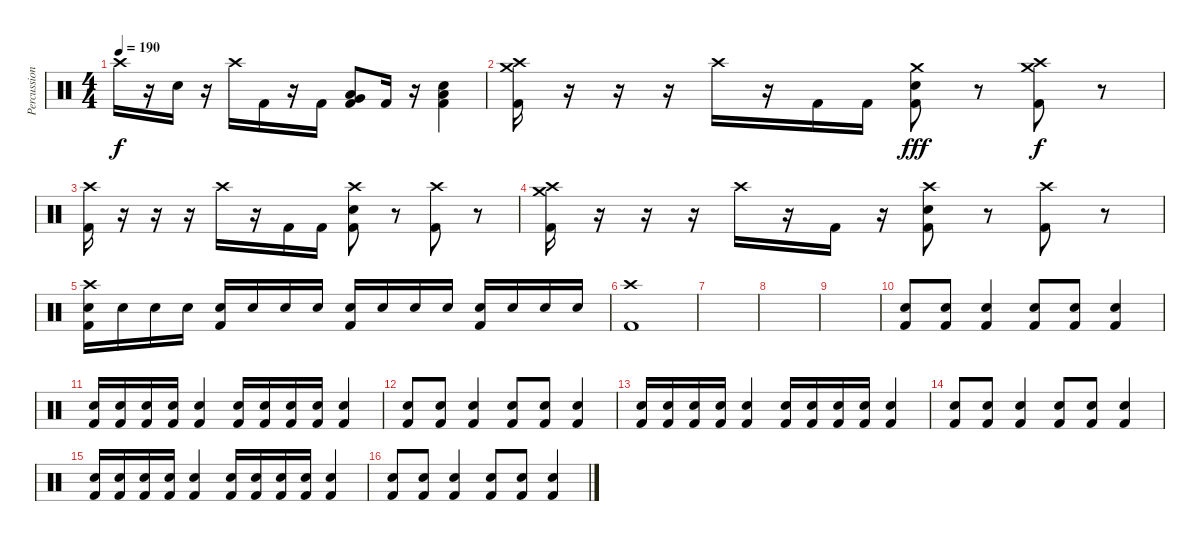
\track ("Percussion" "Percussion") {instrument percussion}
\staff {score}
\articulation defaults
\ts (4 4)
\tempo 190
\clef neutral
\ks c "Crash high (hit)".16{dy f}
r.16 "Electric Snare (hit)".16 r.16 "Crash high (hit)".16 "Kick (hit) 2".16 r.16 "Kick (hit) 2".16 ("Low Floor Tom (hit)" "Very Low Tom (hit)" "Kick (hit) 2").8 "Kick (hit) 2".16 r.16 ("Electric Snare (hit)" "Low Floor Tom (hit)" "Kick (hit) 2").4 |
("Crash medium (hit)" "Crash high (hit)" "Kick (hit) 2").16 r.16 r.16 r.16 "Crash high (hit)".16 r.16 "Kick (hit) 2".16 "Kick (hit) 2".16 ("Crash medium (hit)" "Electric Snare (hit)" "Kick (hit) 2").8{dy fff} r.8 ("Crash medium (hit)" "Crash high (hit)" "Kick (hit) 2").8{dy f} r.8 |
("Crash high (hit)" "Kick (hit) 2").16 r.16 r.16 r.16 "Crash high (hit)".16 r.16 "Kick (hit) 2".16 "Kick (hit) 2".16 ("Crash high (hit)" "Electric Snare (hit)" "Kick (hit) 2").8 r.8 ("Crash high (hit)" "Kick (hit) 2").8 r.8 |
("Crash medium (hit)" "Crash high (hit)" "Kick (hit) 2").16 r.16 r.16 r.16 "Crash high (hit)".16 r.16 "Kick (hit) 2".16 r.16 ("Crash high (hit)" "Electric Snare (hit)" "Kick (hit) 2").8 r.8 ("Crash high (hit)" "Kick (hit) 2").8 r.8 |
("Crash high (hit)" "Electric Snare (hit)" "Kick (hit) 2").16 "Electric Snare (hit)".16 "Electric Snare (hit)".16 "Electric Snare (hit)".16 ("Electric Snare (hit)" "Kick (hit) 2").16 "Electric Snare (hit)".16 "Electric Snare (hit)".16 "Electric Snare (hit)".16 ("Electric Snare (hit)" "Kick (hit) 2").16 "Electric Snare (hit)".16 "Electric Snare (hit)".16 "Electric Snare (hit)".16 ("Electric Snare (hit)" "Kick (hit) 2").16 "Electric Snare (hit)".16 "Electric Snare (hit)".16 "Electric Snare (hit)".16 |
("Crash high (hit)" "Kick (hit) 2").1 |
|
|
|
("Electric Snare (hit)" "Kick (hit) 2").8 ("Electric Snare (hit)" "Kick (hit) 2").8 ("Electric Snare (hit)" "Kick (hit) 2").4 ("Electric Snare (hit)" "Kick (hit) 2").8 ("Electric Snare (hit)" "Kick (hit) 2").8 ("Electric Snare (hit)" "Kick (hit) 2").4 |
("Electric Snare (hit)" "Kick (hit) 2").16 ("Electric Snare (hit)" "Kick (hit) 2").16 ("Electric Snare (hit)" "Kick (hit) 2").16 ("Electric Snare (hit)" "Kick (hit) 2").16 ("Electric Snare (hit)" "Kick (hit) 2").4 ("Electric Snare (hit)" "Kick (hit) 2").16 ("Electric Snare (hit)" "Kick (hit) 2").16 ("Electric Snare (hit)" "Kick (hit) 2").16 ("Electric Snare (hit)" "Kick (hit) 2").16 ("Electric Snare (hit)" "Kick (hit) 2").4 |
("Electric Snare (hit)" "Kick (hit) 2").8 ("Electric Snare (hit)" "Kick (hit) 2").8 ("Electric Snare (hit)" "Kick (hit) 2").4 ("Electric Snare (hit)" "Kick (hit) 2").8 ("Electric Snare (hit)" "Kick (hit) 2").8 ("Electric Snare (hit)" "Kick (hit) 2").4 |
("Electric Snare (hit)" "Kick (hit) 2").16 ("Electric Snare (hit)" "Kick (hit) 2").16 ("Electric Snare (hit)" "Kick (hit) 2").16 ("Electric Snare (hit)" "Kick (hit) 2").16 ("Electric Snare (hit)" "Kick (hit) 2").4 ("Electric Snare (hit)" "Kick (hit) 2").16 ("Electric Snare (hit)" "Kick (hit) 2").16 ("Electric Snare (hit)" "Kick (hit) 2").16 ("Electric Snare (hit)" "Kick (hit) 2").16 ("Electric Snare (hit)" "Kick (hit) 2").4 |
("Electric Snare (hit)" "Kick (hit) 2").8 ("Electric Snare (hit)" "Kick (hit) 2").8 ("Electric Snare (hit)" "Kick (hit) 2").4 ("Electric Snare (hit)" "Kick (hit) 2").8 ("Electric Snare (hit)" "Kick (hit) 2").8 ("Electric Snare (hit)" "Kick (hit) 2").4 |
("Electric Snare (hit)" "Kick (hit) 2").16 ("Electric Snare (hit)" "Kick (hit) 2").16 ("Electric Snare (hit)" "Kick (hit) 2").16 ("Electric Snare (hit)" "Kick (hit) 2").16 ("Electric Snare (hit)" "Kick (hit) 2").4 ("Electric Snare (hit)" "Kick (hit) 2").16 ("Electric Snare (hit)" "Kick (hit) 2").16 ("Electric Snare (hit)" "Kick (hit) 2").16 ("Electric Snare (hit)" "Kick (hit) 2").16 ("Electric Snare (hit)" "Kick (hit) 2").4 |
("Electric Snare (hit)" "Kick (hit) 2").8 ("Electric Snare (hit)" "Kick (hit) 2").8 ("Electric Snare (hit)" "Kick (hit) 2").4 ("Electric Snare (hit)" "Kick (hit) 2").8 ("Electric Snare (hit)" "Kick (hit) 2").8 ("Electric Snare (hit)" "Kick (hit) 2").4
